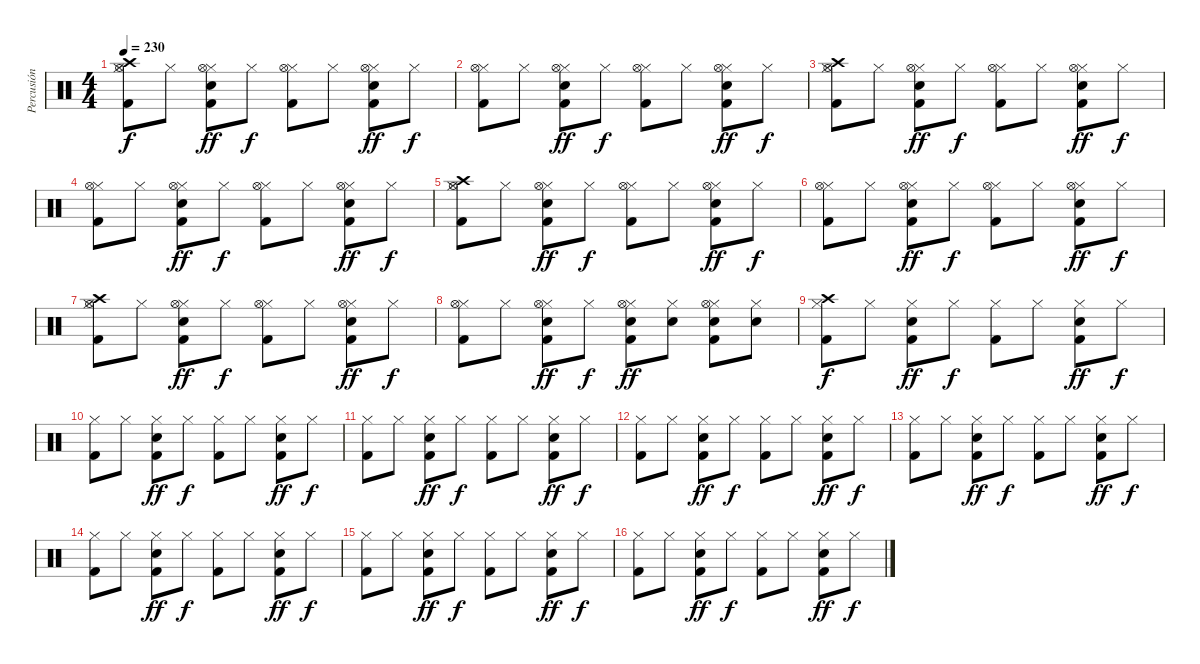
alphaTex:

\track ("Percusión" "Percusión") {instrument percussion}
\staff {score}
\articulation defaults
\ts (4 4)
\tempo 230
\clef neutral
\ks c
("Crash high (hit)" "Hi-Hat (closed)" "Kick (hit) 2" "Hi-Hat (open)").8{dy f} "Hi-Hat (closed)".8 ("Hi-Hat (closed)" "Snare (hit) 2" "Kick (hit) 2" "Hi-Hat (open)").8{dy ff} "Hi-Hat (closed)".8{dy f} ("Hi-Hat (closed)" "Kick (hit) 2" "Hi-Hat (open)").8 "Hi-Hat (closed)".8 ("Hi-Hat (closed)" "Snare (hit) 2" "Kick (hit) 2" "Hi-Hat (open)").8{dy ff} "Hi-Hat (closed)".8{dy f} |
("Hi-Hat (closed)" "Kick (hit) 2" "Hi-Hat (open)").8 "Hi-Hat (closed)".8 ("Hi-Hat (closed)" "Snare (hit) 2" "Kick (hit) 2" "Hi-Hat (open)").8{dy ff} "Hi-Hat (closed)".8{dy f} ("Hi-Hat (closed)" "Kick (hit) 2" "Hi-Hat (open)").8 "Hi-Hat (closed)".8 ("Hi-Hat (closed)" "Snare (hit) 2" "Kick (hit) 2" "Hi-Hat (open)").8{dy ff} "Hi-Hat (closed)".8{dy f} |
("Crash high (hit)" "Hi-Hat (closed)" "Kick (hit) 2" "Hi-Hat (open)").8 "Hi-Hat (closed)".8 ("Hi-Hat (closed)" "Snare (hit) 2" "Kick (hit) 2" "Hi-Hat (open)").8{dy ff} "Hi-Hat (closed)".8{dy f} ("Hi-Hat (closed)" "Kick (hit) 2" "Hi-Hat (open)").8 "Hi-Hat (closed)".8 ("Hi-Hat (closed)" "Snare (hit) 2" "Kick (hit) 2" "Hi-Hat (open)").8{dy ff} "Hi-Hat (closed)".8{dy f} |
("Hi-Hat (closed)" "Kick (hit) 2" "Hi-Hat (open)").8 "Hi-Hat (closed)".8 ("Hi-Hat (closed)" "Snare (hit) 2" "Kick (hit) 2" "Hi-Hat (open)").8{dy ff} "Hi-Hat (closed)".8{dy f} ("Hi-Hat (closed)" "Kick (hit) 2" "Hi-Hat (open)").8 "Hi-Hat (closed)".8 ("Hi-Hat (closed)" "Snare (hit) 2" "Kick (hit) 2" "Hi-Hat (open)").8{dy ff} "Hi-Hat (closed)".8{dy f} |
("Crash high (hit)" "Hi-Hat (closed)" "Kick (hit) 2" "Hi-Hat (open)").8 "Hi-Hat (closed)".8 ("Hi-Hat (closed)" "Snare (hit) 2" "Kick (hit) 2" "Hi-Hat (open)").8{dy ff} "Hi-Hat (closed)".8{dy f} ("Hi-Hat (closed)" "Kick (hit) 2" "Hi-Hat (open)").8 "Hi-Hat (closed)".8 ("Hi-Hat (closed)" "Snare (hit) 2" "Kick (hit) 2" "Hi-Hat (open)").8{dy ff} "Hi-Hat (closed)".8{dy f} |
("Hi-Hat (closed)" "Kick (hit) 2" "Hi-Hat (open)").8 "Hi-Hat (closed)".8 ("Hi-Hat (closed)" "Snare (hit) 2" "Kick (hit) 2" "Hi-Hat (open)").8{dy ff} "Hi-Hat (closed)".8{dy f} ("Hi-Hat (closed)" "Kick (hit) 2" "Hi-Hat (open)").8 "Hi-Hat (closed)".8 ("Hi-Hat (closed)" "Snare (hit) 2" "Kick (hit) 2" "Hi-Hat (open)").8{dy ff} "Hi-Hat (closed)".8{dy f} |
("Crash high (hit)" "Hi-Hat (closed)" "Kick (hit) 2" "Hi-Hat (open)").8 "Hi-Hat (closed)".8 ("Hi-Hat (closed)" "Snare (hit) 2" "Kick (hit) 2" "Hi-Hat (open)").8{dy ff} "Hi-Hat (closed)".8{dy f} ("Hi-Hat (closed)" "Kick (hit) 2" "Hi-Hat (open)").8 "Hi-Hat (closed)".8 ("Hi-Hat (closed)" "Snare (hit) 2" "Kick (hit) 2" "Hi-Hat (open)").8{dy ff} "Hi-Hat (closed)".8{dy f} |
("Hi-Hat (closed)" "Kick (hit) 2" "Hi-Hat (open)").8 "Hi-Hat (closed)".8 ("Hi-Hat (closed)" "Snare (hit) 2" "Kick (hit) 2" "Hi-Hat (open)").8{dy ff} "Hi-Hat (closed)".8{dy f} ("Hi-Hat (closed)" "Snare (hit) 2" "Kick (hit) 2" "Hi-Hat (open)").8{dy ff} ("Hi-Hat (closed)" "Snare (hit) 2").8 ("Hi-Hat (closed)" "Snare (hit) 2" "Kick (hit) 2" "Hi-Hat (open)").8 ("Hi-Hat (closed)" "Snare (hit) 2").8 |
("Crash high (hit)" "Hi-Hat (closed)" "Kick (hit) 2").8{dy f} "Hi-Hat (closed)".8 ("Hi-Hat (closed)" "Snare (hit) 2" "Kick (hit) 2").8{dy ff} "Hi-Hat (closed)".8{dy f} ("Hi-Hat (closed)" "Kick (hit) 2").8 "Hi-Hat (closed)".8 ("Hi-Hat (closed)" "Snare (hit) 2" "Kick (hit) 2").8{dy ff} "Hi-Hat (closed)".8{dy f} |
("Hi-Hat (closed)" "Kick (hit) 2").8 "Hi-Hat (closed)".8 ("Hi-Hat (closed)" "Snare (hit) 2" "Kick (hit) 2").8{dy ff} "Hi-Hat (closed)".8{dy f} ("Hi-Hat (closed)" "Kick (hit) 2").8 "Hi-Hat (closed)".8 ("Hi-Hat (closed)" "Snare (hit) 2" "Kick (hit) 2").8{dy ff} "Hi-Hat (closed)".8{dy f} |
("Hi-Hat (closed)" "Kick (hit) 2").8 "Hi-Hat (closed)".8 ("Hi-Hat (closed)" "Snare (hit) 2" "Kick (hit) 2").8{dy ff} "Hi-Hat (closed)".8{dy f} ("Hi-Hat (closed)" "Kick (hit) 2").8 "Hi-Hat (closed)".8 ("Hi-Hat (closed)" "Snare (hit) 2" "Kick (hit) 2").8{dy ff} "Hi-Hat (closed)".8{dy f} |
("Hi-Hat (closed)" "Kick (hit) 2").8 "Hi-Hat (closed)".8 ("Hi-Hat (closed)" "Snare (hit) 2" "Kick (hit) 2").8{dy ff} "Hi-Hat (closed)".8{dy f} ("Hi-Hat (closed)" "Kick (hit) 2").8 "Hi-Hat (closed)".8 ("Hi-Hat (closed)" "Snare (hit) 2" "Kick (hit) 2").8{dy ff} "Hi-Hat (closed)".8{dy f} |
("Hi-Hat (closed)" "Kick (hit) 2").8 "Hi-Hat (closed)".8 ("Hi-Hat (closed)" "Snare (hit) 2" "Kick (hit) 2").8{dy ff} "Hi-Hat (closed)".8{dy f} ("Hi-Hat (closed)" "Kick (hit) 2").8 "Hi-Hat (closed)".8 ("Hi-Hat (closed)" "Snare (hit) 2" "Kick (hit) 2").8{dy ff} "Hi-Hat (closed)".8{dy f} |
("Hi-Hat (closed)" "Kick (hit) 2").8 "Hi-Hat (closed)".8 ("Hi-Hat (closed)" "Snare (hit) 2" "Kick (hit) 2").8{dy ff} "Hi-Hat (closed)".8{dy f} ("Hi-Hat (closed)" "Kick (hit) 2").8 "Hi-Hat (closed)".8 ("Hi-Hat (closed)" "Snare (hit) 2" "Kick (hit) 2").8{dy ff} "Hi-Hat (closed)".8{dy f} |
("Hi-Hat (closed)" "Kick (hit) 2").8 "Hi-Hat (closed)".8 ("Hi-Hat (closed)" "Snare (hit) 2" "Kick (hit) 2").8{dy ff} "Hi-Hat (closed)".8{dy f} ("Hi-Hat (closed)" "Kick (hit) 2").8 "Hi-Hat (closed)".8 ("Hi-Hat (closed)" "Snare (hit) 2" "Kick (hit) 2").8{dy ff} "Hi-Hat (closed)".8{dy f} |
("Hi-Hat (closed)" "Kick (hit) 2").8 "Hi-Hat (closed)".8 ("Hi-Hat (closed)" "Snare (hit) 2" "Kick (hit) 2").8{dy ff} "Hi-Hat (closed)".8{dy f} ("Hi-Hat (closed)" "Kick (hit) 2").8 "Hi-Hat (closed)".8 ("Hi-Hat (closed)" "Snare (hit) 2" "Kick (hit) 2").8{dy ff} "Hi-Hat (closed)".8{dy f}
